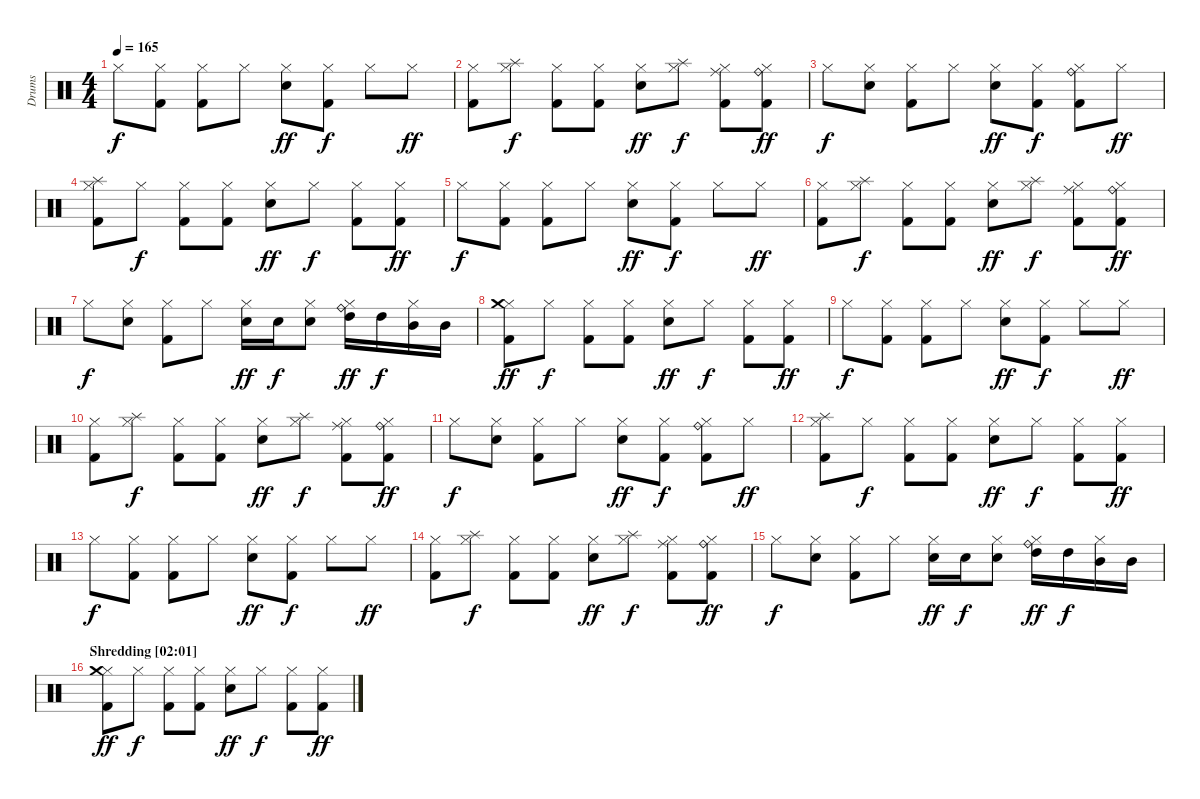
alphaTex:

\track ("Drums" "Drums") {instrument percussion}
\staff {score}
\articulation defaults
\ts (4 4)
\tempo 165
\clef neutral
\ks c "Hi-Hat (closed)".8{dy f}
("Hi-Hat (closed)" "Kick (hit) 2").8 ("Hi-Hat (closed)" "Kick (hit) 2").8 "Hi-Hat (closed)".8 ("Hi-Hat (closed)" "Electric Snare (hit)").8{dy ff} ("Hi-Hat (closed)" "Kick (hit) 2").8{dy f} "Hi-Hat (closed)".8 "Hi-Hat (closed)".8{dy ff} |
("Hi-Hat (closed)" "Kick (hit) 2").8 ("Hi-Hat (closed)" "Splash (hit)").8{dy f} ("Hi-Hat (closed)" "Kick (hit) 2").8 ("Hi-Hat (closed)" "Kick (hit) 2").8 ("Hi-Hat (closed)" "Electric Snare (hit)").8{dy ff} ("Hi-Hat (closed)" "Splash (hit)").8{dy f} ("Hi-Hat (closed)" "Ride (middle)" "Kick (hit) 2").8 ("Hi-Hat (closed)" "Ride (bell)" "Kick (hit) 2").8{dy ff} |
"Hi-Hat (closed)".8{dy f} ("Hi-Hat (closed)" "Electric Snare (hit)").8 ("Hi-Hat (closed)" "Kick (hit) 2").8 "Hi-Hat (closed)".8 ("Hi-Hat (closed)" "Electric Snare (hit)").8{dy ff} ("Hi-Hat (closed)" "Kick (hit) 2").8{dy f} ("Hi-Hat (closed)" "Ride (bell)" "Kick (hit) 2").8 "Hi-Hat (closed)".8{dy ff} |
("Hi-Hat (closed)" "Splash (hit)" "Kick (hit) 2").8 "Hi-Hat (closed)".8{dy f} ("Hi-Hat (closed)" "Kick (hit) 2").8 ("Hi-Hat (closed)" "Kick (hit) 2").8 ("Hi-Hat (closed)" "Electric Snare (hit)").8{dy ff} "Hi-Hat (closed)".8{dy f} ("Hi-Hat (closed)" "Kick (hit) 2").8 ("Hi-Hat (closed)" "Kick (hit) 2").8{dy ff} |
"Hi-Hat (closed)".8{dy f} ("Hi-Hat (closed)" "Kick (hit) 2").8 ("Hi-Hat (closed)" "Kick (hit) 2").8 "Hi-Hat (closed)".8 ("Hi-Hat (closed)" "Electric Snare (hit)").8{dy ff} ("Hi-Hat (closed)" "Kick (hit) 2").8{dy f} "Hi-Hat (closed)".8 "Hi-Hat (closed)".8{dy ff} |
("Hi-Hat (closed)" "Kick (hit) 2").8 ("Hi-Hat (closed)" "Splash (hit)").8{dy f} ("Hi-Hat (closed)" "Kick (hit) 2").8 ("Hi-Hat (closed)" "Kick (hit) 2").8 ("Hi-Hat (closed)" "Electric Snare (hit)").8{dy ff} ("Hi-Hat (closed)" "Splash (hit)").8{dy f} ("Hi-Hat (closed)" "Ride (middle)" "Kick (hit) 2").8 ("Hi-Hat (closed)" "Ride (bell)" "Kick (hit) 2").8{dy ff} |
"Hi-Hat (closed)".8{dy f} ("Hi-Hat (closed)" "Electric Snare (hit)").8 ("Hi-Hat (closed)" "Kick (hit) 2").8 "Hi-Hat (closed)".8 ("Hi-Hat (closed)" "Electric Snare (hit)").16{dy ff} "Electric Snare (hit)".16{dy f} ("Hi-Hat (closed)" "Electric Snare (hit)").8 ("Hi-Hat (closed)" "Ride (bell)" "High Tom (hit)").16{dy ff} "High Tom (hit)".16{dy f} ("Hi-Hat (closed)" "Mid Tom (hit)").16 "Mid Tom (hit)".16 |
\section ("" "")
("Hi-Hat (closed)" "Crash medium (hit)" "Kick (hit) 2").8{dy ff} "Hi-Hat (closed)".8{dy f} ("Hi-Hat (closed)" "Kick (hit) 2").8 ("Hi-Hat (closed)" "Kick (hit) 2").8 ("Hi-Hat (closed)" "Electric Snare (hit)").8{dy ff} "Hi-Hat (closed)".8{dy f} ("Hi-Hat (closed)" "Kick (hit) 2").8 ("Hi-Hat (closed)" "Kick (hit) 2").8{dy ff} |
"Hi-Hat (closed)".8{dy f} ("Hi-Hat (closed)" "Kick (hit) 2").8 ("Hi-Hat (closed)" "Kick (hit) 2").8 "Hi-Hat (closed)".8 ("Hi-Hat (closed)" "Electric Snare (hit)").8{dy ff} ("Hi-Hat (closed)" "Kick (hit) 2").8{dy f} "Hi-Hat (closed)".8 "Hi-Hat (closed)".8{dy ff} |
("Hi-Hat (closed)" "Kick (hit) 2").8 ("Hi-Hat (closed)" "Splash (hit)").8{dy f} ("Hi-Hat (closed)" "Kick (hit) 2").8 ("Hi-Hat (closed)" "Kick (hit) 2").8 ("Hi-Hat (closed)" "Electric Snare (hit)").8{dy ff} ("Hi-Hat (closed)" "Splash (hit)").8{dy f} ("Hi-Hat (closed)" "Ride (middle)" "Kick (hit) 2").8 ("Hi-Hat (closed)" "Ride (bell)" "Kick (hit) 2").8{dy ff} |
"Hi-Hat (closed)".8{dy f} ("Hi-Hat (closed)" "Electric Snare (hit)").8 ("Hi-Hat (closed)" "Kick (hit) 2").8 "Hi-Hat (closed)".8 ("Hi-Hat (closed)" "Electric Snare (hit)").8{dy ff} ("Hi-Hat (closed)" "Kick (hit) 2").8{dy f} ("Hi-Hat (closed)" "Ride (bell)" "Kick (hit) 2").8 "Hi-Hat (closed)".8{dy ff} |
("Hi-Hat (closed)" "Splash (hit)" "Kick (hit) 2").8 "Hi-Hat (closed)".8{dy f} ("Hi-Hat (closed)" "Kick (hit) 2").8 ("Hi-Hat (closed)" "Kick (hit) 2").8 ("Hi-Hat (closed)" "Electric Snare (hit)").8{dy ff} "Hi-Hat (closed)".8{dy f} ("Hi-Hat (closed)" "Kick (hit) 2").8 ("Hi-Hat (closed)" "Kick (hit) 2").8{dy ff} |
"Hi-Hat (closed)".8{dy f} ("Hi-Hat (closed)" "Kick (hit) 2").8 ("Hi-Hat (closed)" "Kick (hit) 2").8 "Hi-Hat (closed)".8 ("Hi-Hat (closed)" "Electric Snare (hit)").8{dy ff} ("Hi-Hat (closed)" "Kick (hit) 2").8{dy f} "Hi-Hat (closed)".8 "Hi-Hat (closed)".8{dy ff} |
("Hi-Hat (closed)" "Kick (hit) 2").8 ("Hi-Hat (closed)" "Splash (hit)").8{dy f} ("Hi-Hat (closed)" "Kick (hit) 2").8 ("Hi-Hat (closed)" "Kick (hit) 2").8 ("Hi-Hat (closed)" "Electric Snare (hit)").8{dy ff} ("Hi-Hat (closed)" "Splash (hit)").8{dy f} ("Hi-Hat (closed)" "Ride (middle)" "Kick (hit) 2").8 ("Hi-Hat (closed)" "Ride (bell)" "Kick (hit) 2").8{dy ff} |
"Hi-Hat (closed)".8{dy f} ("Hi-Hat (closed)" "Electric Snare (hit)").8 ("Hi-Hat (closed)" "Kick (hit) 2").8 "Hi-Hat (closed)".8 ("Hi-Hat (closed)" "Electric Snare (hit)").16{dy ff} "Electric Snare (hit)".16{dy f} ("Hi-Hat (closed)" "Electric Snare (hit)").8 ("Hi-Hat (closed)" "Ride (bell)" "High Tom (hit)").16{dy ff} "High Tom (hit)".16{dy f} ("Hi-Hat (closed)" "Mid Tom (hit)").16 "Mid Tom (hit)".16 |
\section ("" "Shredding [02:01]")
("Hi-Hat (closed)" "Crash medium (hit)" "Kick (hit) 2").8{dy ff} "Hi-Hat (closed)".8{dy f} ("Hi-Hat (closed)" "Kick (hit) 2").8 ("Hi-Hat (closed)" "Kick (hit) 2").8 ("Hi-Hat (closed)" "Electric Snare (hit)").8{dy ff} "Hi-Hat (closed)".8{dy f} ("Hi-Hat (closed)" "Kick (hit) 2").8 ("Hi-Hat (closed)" "Kick (hit) 2").8{dy ff}
